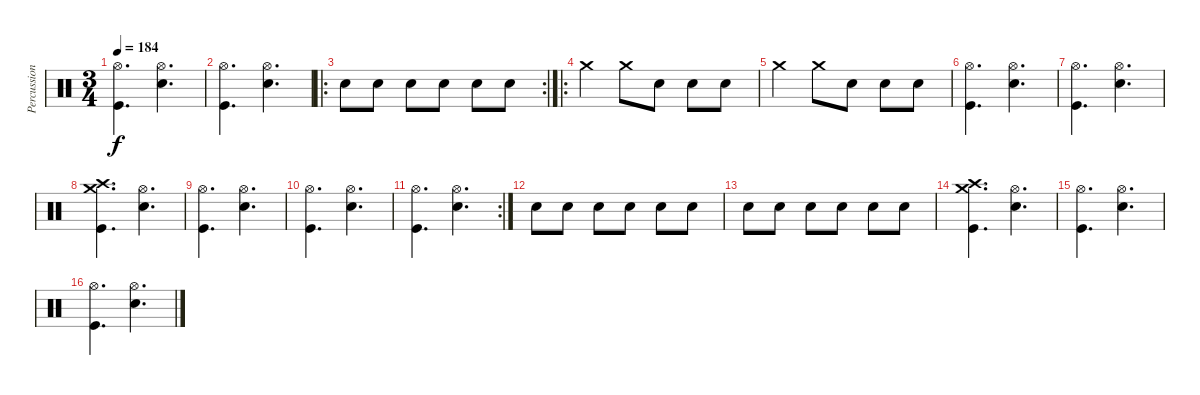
\track ("Percussion" "Percussion") {instrument percussion}
\staff {score}
\articulation defaults
\ts (3 4)
\tempo 184
\clef neutral
\ks c
("Hi-Hat (open)" "Kick (hit)").4{d dy f} ("Hi-Hat (open)" "Snare (hit) 2").4{d} |
("Hi-Hat (open)" "Kick (hit)").4{d} ("Hi-Hat (open)" "Snare (hit) 2").4{d} |
\ro
\rc 2 "Snare (hit) 2".8 "Snare (hit) 2".8 "Snare (hit) 2".8 "Snare (hit) 2".8 "Snare (hit) 2".8 "Snare (hit) 2".8
|
\ro "Crash medium (hit)".4 "Crash medium (hit)".8 "Snare (hit) 2".8 "Snare (hit) 2".8 "Snare (hit) 2".8
|
"Crash medium (hit)".4 "Crash medium (hit)".8 "Snare (hit) 2".8 "Snare (hit) 2".8 "Snare (hit) 2".8 |
("Hi-Hat (open)" "Kick (hit)").4{d} ("Hi-Hat (open)" "Snare (hit) 2").4{d} |
("Hi-Hat (open)" "Kick (hit)").4{d} ("Hi-Hat (open)" "Snare (hit) 2").4{d} |
("Crash medium (hit)" "Crash high (hit)" "Kick (hit)").4{d} ("Hi-Hat (open)" "Snare (hit) 2").4{d} |
("Hi-Hat (open)" "Kick (hit)").4{d} ("Hi-Hat (open)" "Snare (hit) 2").4{d} |
("Hi-Hat (open)" "Kick (hit)").4{d} ("Hi-Hat (open)" "Snare (hit) 2").4{d} |
\rc 2
("Hi-Hat (open)" "Kick (hit)").4{d} ("Hi-Hat (open)" "Snare (hit) 2").4{d} |
"Snare (hit) 2".8 "Snare (hit) 2".8 "Snare (hit) 2".8 "Snare (hit) 2".8 "Snare (hit) 2".8 "Snare (hit) 2".8 |
"Snare (hit) 2".8 "Snare (hit) 2".8 "Snare (hit) 2".8 "Snare (hit) 2".8 "Snare (hit) 2".8 "Snare (hit) 2".8 |
("Crash medium (hit)" "Crash high (hit)" "Kick (hit)").4{d} ("Hi-Hat (open)" "Snare (hit) 2").4{d} |
("Hi-Hat (open)" "Kick (hit)").4{d} ("Hi-Hat (open)" "Snare (hit) 2").4{d} |
("Hi-Hat (open)" "Kick (hit)").4{d} ("Hi-Hat (open)" "Snare (hit) 2").4{d}
